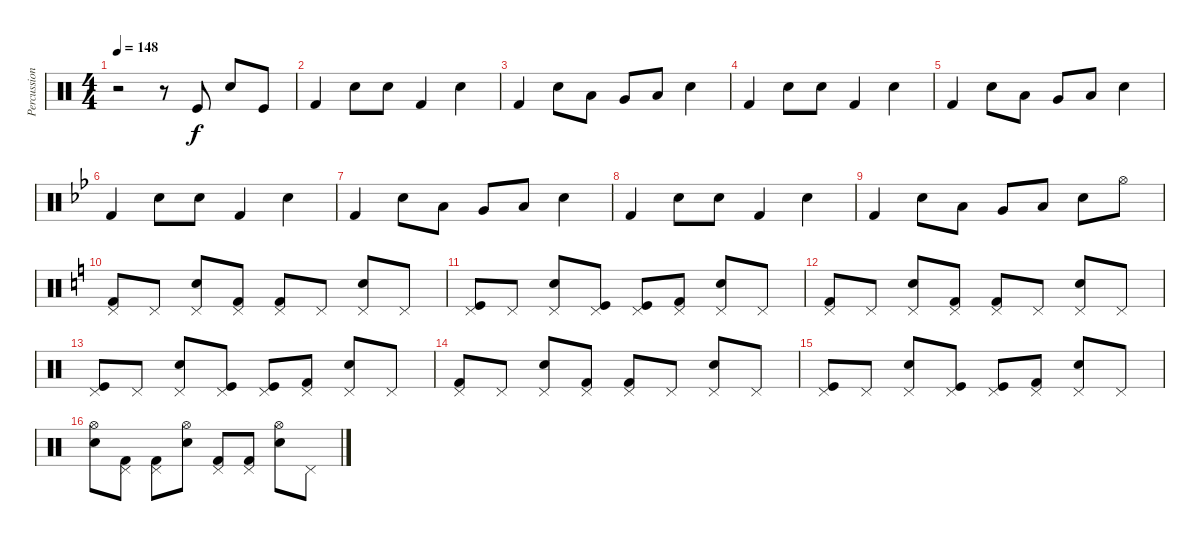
\track ("Percussion" "Percussion") {instrument percussion}
\staff {score}
\articulation defaults
\ts (4 4)
\tempo 148
\clef neutral
\ks c
r.2{dy f} r.8 "Kick (hit)".8 "Electric Snare (hit)".8 "Kick (hit)".8 |
"Kick (hit) 2".4 "Electric Snare (hit)".8 "Electric Snare (hit)".8 "Kick (hit) 2".4 "Electric Snare (hit)".4 |
"Kick (hit) 2".4 "Electric Snare (hit)".8 "Low Tom (hit)".8 "Very Low Tom (hit)".8 "Low Floor Tom (hit)".8 "Electric Snare (hit)".4 |
"Kick (hit) 2".4 "Electric Snare (hit)".8 "Electric Snare (hit)".8 "Kick (hit) 2".4 "Electric Snare (hit)".4 |
"Kick (hit) 2".4 "Electric Snare (hit)".8 "Low Tom (hit)".8 "Very Low Tom (hit)".8 "Low Floor Tom (hit)".8 "Electric Snare (hit)".4 |
\ks bb "Kick (hit) 2".4 "Electric Snare (hit)".8 "Electric Snare (hit)".8 "Kick (hit) 2".4 "Electric Snare (hit)".4
|
"Kick (hit) 2".4 "Electric Snare (hit)".8 "Low Tom (hit)".8 "Very Low Tom (hit)".8 "Low Floor Tom (hit)".8 "Electric Snare (hit)".4 |
"Kick (hit) 2".4 "Electric Snare (hit)".8 "Electric Snare (hit)".8 "Kick (hit) 2".4 "Electric Snare (hit)".4 |
"Kick (hit) 2".4 "Electric Snare (hit)".8 "Low Tom (hit)".8 "Very Low Tom (hit)".8 "Low Floor Tom (hit)".8 "Electric Snare (hit)".8 "Hi-Hat (open)".8 |
\ks c
("Pedal Hi-Hat (hit)" "Kick (hit) 2").8 "Pedal Hi-Hat (hit)".8 ("Pedal Hi-Hat (hit)" "Electric Snare (hit)").8 ("Pedal Hi-Hat (hit)" "Kick (hit) 2").8 ("Pedal Hi-Hat (hit)" "Kick (hit) 2").8 "Pedal Hi-Hat (hit)".8 ("Pedal Hi-Hat (hit)" "Electric Snare (hit)").8 "Pedal Hi-Hat (hit)".8 |
("Pedal Hi-Hat (hit)" "Kick (hit)").8 "Pedal Hi-Hat (hit)".8 ("Pedal Hi-Hat (hit)" "Electric Snare (hit)").8 ("Pedal Hi-Hat (hit)" "Kick (hit)").8 ("Pedal Hi-Hat (hit)" "Kick (hit)").8 ("Pedal Hi-Hat (hit)" "Kick (hit) 2").8 ("Pedal Hi-Hat (hit)" "Electric Snare (hit)").8 "Pedal Hi-Hat (hit)".8 |
("Pedal Hi-Hat (hit)" "Kick (hit) 2").8 "Pedal Hi-Hat (hit)".8 ("Pedal Hi-Hat (hit)" "Electric Snare (hit)").8 ("Pedal Hi-Hat (hit)" "Kick (hit) 2").8 ("Pedal Hi-Hat (hit)" "Kick (hit) 2").8 "Pedal Hi-Hat (hit)".8 ("Pedal Hi-Hat (hit)" "Electric Snare (hit)").8 "Pedal Hi-Hat (hit)".8 |
("Pedal Hi-Hat (hit)" "Kick (hit)").8 "Pedal Hi-Hat (hit)".8 ("Pedal Hi-Hat (hit)" "Electric Snare (hit)").8 ("Pedal Hi-Hat (hit)" "Kick (hit)").8 ("Pedal Hi-Hat (hit)" "Kick (hit)").8 ("Pedal Hi-Hat (hit)" "Kick (hit) 2").8 ("Pedal Hi-Hat (hit)" "Electric Snare (hit)").8 "Pedal Hi-Hat (hit)".8 |
("Pedal Hi-Hat (hit)" "Kick (hit) 2").8 "Pedal Hi-Hat (hit)".8 ("Pedal Hi-Hat (hit)" "Electric Snare (hit)").8 ("Pedal Hi-Hat (hit)" "Kick (hit) 2").8 ("Pedal Hi-Hat (hit)" "Kick (hit) 2").8 "Pedal Hi-Hat (hit)".8 ("Pedal Hi-Hat (hit)" "Electric Snare (hit)").8 "Pedal Hi-Hat (hit)".8 |
("Pedal Hi-Hat (hit)" "Kick (hit)").8 "Pedal Hi-Hat (hit)".8 ("Pedal Hi-Hat (hit)" "Electric Snare (hit)").8 ("Pedal Hi-Hat (hit)" "Kick (hit)").8 ("Pedal Hi-Hat (hit)" "Kick (hit)").8 ("Pedal Hi-Hat (hit)" "Kick (hit) 2").8 ("Pedal Hi-Hat (hit)" "Electric Snare (hit)").8 "Pedal Hi-Hat (hit)".8 |
("Hi-Hat (open)" "Electric Snare (hit)").8 ("Pedal Hi-Hat (hit)" "Kick (hit) 2").8 ("Pedal Hi-Hat (hit)" "Kick (hit) 2").8 ("Hi-Hat (open)" "Electric Snare (hit)").8 ("Pedal Hi-Hat (hit)" "Kick (hit) 2").8 ("Pedal Hi-Hat (hit)" "Kick (hit) 2").8 ("Hi-Hat (open)" "Electric Snare (hit)").8 "Pedal Hi-Hat (hit)".8
